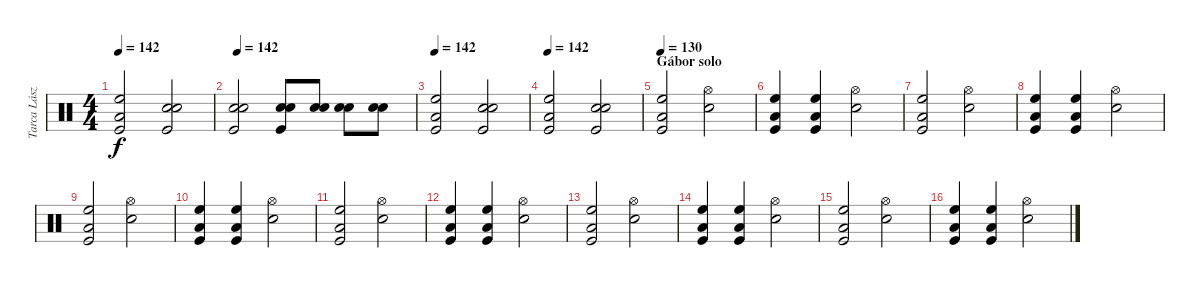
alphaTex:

\track ("Tarca László" "Tarca Lász") {instrument percussion}
\staff {score}
\articulation defaults
\ts (4 4)
\tempo 142
\clef neutral
\ks c
("Low Tom (hit)" "High Floor Tom (hit)" "Kick (hit)").2{dy f} ("Snare (hit) 2" "Snare (hit) 2" "Kick (hit)").2 |
\tempo 142
("Snare (hit) 2" "Snare (hit) 2" "Kick (hit)").2 ("Snare (hit) 2" "Snare (hit) 2" "Kick (hit)").8 ("Snare (hit) 2" "Snare (hit) 2").8 ("Snare (hit) 2" "Snare (hit) 2").8 ("Snare (hit) 2" "Snare (hit) 2").8 |
\tempo 142
("Low Tom (hit)" "High Floor Tom (hit)" "Kick (hit)").2 ("Snare (hit) 2" "Snare (hit) 2" "Kick (hit)").2 |
\tempo 142
("Low Tom (hit)" "High Floor Tom (hit)" "Kick (hit)").2 ("Snare (hit) 2" "Snare (hit) 2" "Kick (hit)").2 |
\section ("" "Gábor solo")
\tempo 130
("High Floor Tom (hit)" "Low Tom (hit)" "Kick (hit)").2 ("Snare (hit) 2" "Hi-Hat (open)").2 |
("High Floor Tom (hit)" "Low Tom (hit)" "Kick (hit)").4 ("High Floor Tom (hit)" "Low Tom (hit)" "Kick (hit)").4 ("Snare (hit) 2" "Hi-Hat (open)").2 |
("High Floor Tom (hit)" "Low Tom (hit)" "Kick (hit)").2 ("Snare (hit) 2" "Hi-Hat (open)").2 |
("High Floor Tom (hit)" "Low Tom (hit)" "Kick (hit)").4 ("High Floor Tom (hit)" "Low Tom (hit)" "Kick (hit)").4 ("Snare (hit) 2" "Hi-Hat (open)").2 |
("High Floor Tom (hit)" "Low Tom (hit)" "Kick (hit)").2 ("Snare (hit) 2" "Hi-Hat (open)").2 |
("High Floor Tom (hit)" "Low Tom (hit)" "Kick (hit)").4 ("High Floor Tom (hit)" "Low Tom (hit)" "Kick (hit)").4 ("Snare (hit) 2" "Hi-Hat (open)").2 |
("High Floor Tom (hit)" "Low Tom (hit)" "Kick (hit)").2 ("Snare (hit) 2" "Hi-Hat (open)").2 |
("High Floor Tom (hit)" "Low Tom (hit)" "Kick (hit)").4 ("High Floor Tom (hit)" "Low Tom (hit)" "Kick (hit)").4 ("Snare (hit) 2" "Hi-Hat (open)").2 |
("High Floor Tom (hit)" "Low Tom (hit)" "Kick (hit)").2 ("Snare (hit) 2" "Hi-Hat (open)").2 |
("High Floor Tom (hit)" "Low Tom (hit)" "Kick (hit)").4 ("High Floor Tom (hit)" "Low Tom (hit)" "Kick (hit)").4 ("Snare (hit) 2" "Hi-Hat (open)").2 |
("High Floor Tom (hit)" "Low Tom (hit)" "Kick (hit)").2 ("Snare (hit) 2" "Hi-Hat (open)").2 |
("High Floor Tom (hit)" "Low Tom (hit)" "Kick (hit)").4 ("High Floor Tom (hit)" "Low Tom (hit)" "Kick (hit)").4 ("Snare (hit) 2" "Hi-Hat (open)").2
